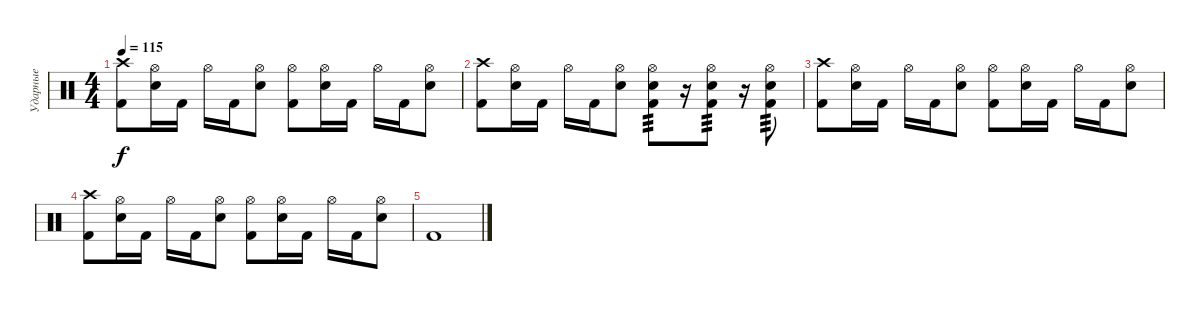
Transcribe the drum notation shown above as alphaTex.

\track ("Ударные" "Ударные") {instrument percussion}
\staff {score}
\articulation defaults
\ts (4 4)
\tempo 115
\clef neutral
\ks c
("Kick (hit) 2" "Crash high (hit)").8{dy f} ("Electric Snare (hit)" "Hi-Hat (open)").16 "Kick (hit) 2".16 "Hi-Hat (open)".16 "Kick (hit) 2".16 ("Electric Snare (hit)" "Hi-Hat (open)").8 ("Kick (hit) 2" "Hi-Hat (open)").8 ("Electric Snare (hit)" "Hi-Hat (open)").16 "Kick (hit) 2".16 "Hi-Hat (open)".16 "Kick (hit) 2".16 ("Electric Snare (hit)" "Hi-Hat (open)").8 |
("Kick (hit) 2" "Crash high (hit)").8 ("Electric Snare (hit)" "Hi-Hat (open)").16 "Kick (hit) 2".16 "Hi-Hat (open)".16 "Kick (hit) 2".16 ("Electric Snare (hit)" "Hi-Hat (open)").8 ("Hi-Hat (open)" "Electric Snare (hit)" "Kick (hit) 2").8{tp 3} r.16 ("Hi-Hat (open)" "Electric Snare (hit)" "Kick (hit) 2").8{tp 3} r.16 ("Hi-Hat (open)" "Electric Snare (hit)" "Kick (hit) 2").8{tp 3} |
("Kick (hit) 2" "Crash high (hit)").8 ("Electric Snare (hit)" "Hi-Hat (open)").16 "Kick (hit) 2".16 "Hi-Hat (open)".16 "Kick (hit) 2".16 ("Electric Snare (hit)" "Hi-Hat (open)").8 ("Kick (hit) 2" "Hi-Hat (open)").8 ("Electric Snare (hit)" "Hi-Hat (open)").16 "Kick (hit) 2".16 "Hi-Hat (open)".16 "Kick (hit) 2".16 ("Electric Snare (hit)" "Hi-Hat (open)").8 |
("Kick (hit) 2" "Crash high (hit)").8 ("Electric Snare (hit)" "Hi-Hat (open)").16 "Kick (hit) 2".16 "Hi-Hat (open)".16 "Kick (hit) 2".16 ("Electric Snare (hit)" "Hi-Hat (open)").8 ("Kick (hit) 2" "Hi-Hat (open)").8 ("Electric Snare (hit)" "Hi-Hat (open)").16 "Kick (hit) 2".16 "Hi-Hat (open)".16 "Kick (hit) 2".16 ("Electric Snare (hit)" "Hi-Hat (open)").8 |
"Kick (hit) 2".1
